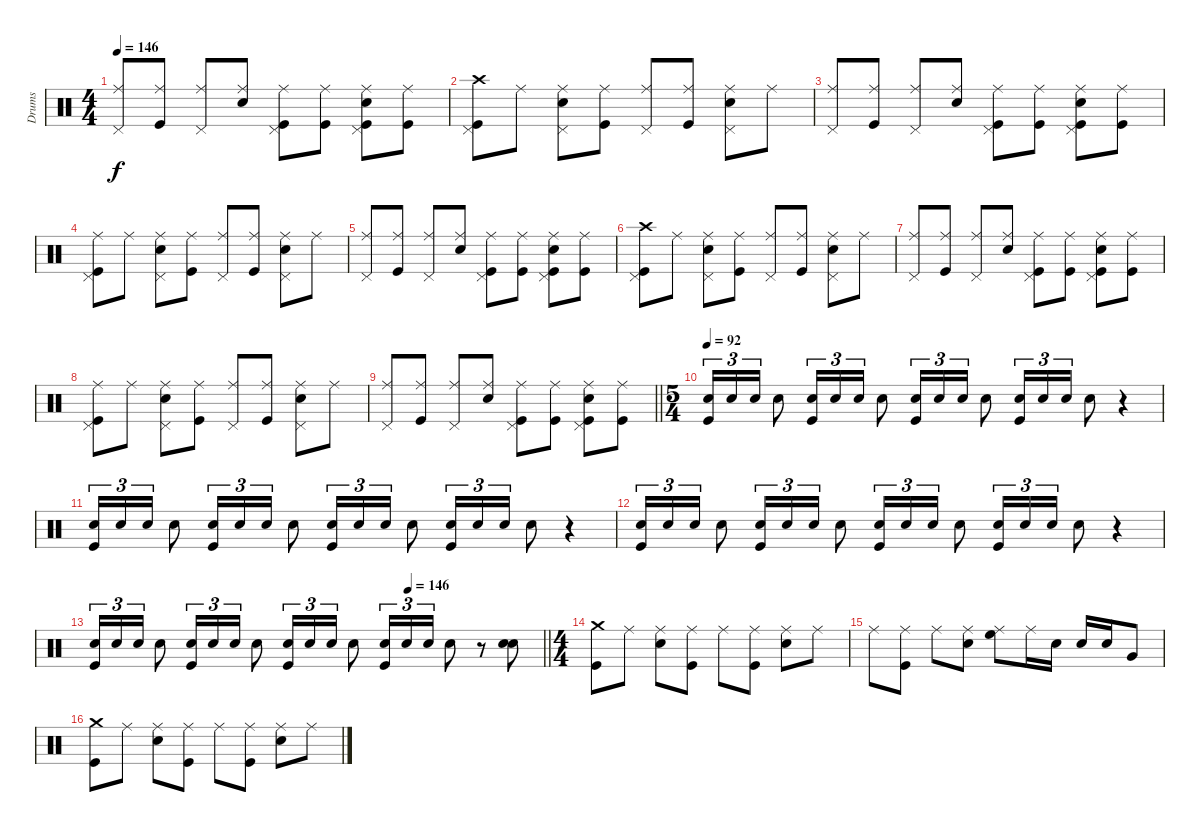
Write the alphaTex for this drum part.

\track ("Drums" "Drums") {instrument percussion}
\staff {score}
\articulation defaults
\ts (4 4)
\tempo 146
\clef neutral
\ks c
("Ride (middle)" "Pedal Hi-Hat (hit)").8{dy f} ("Ride (middle)" "Kick (hit)").8 ("Ride (middle)" "Pedal Hi-Hat (hit)").8 ("Ride (middle)" "Electric Snare (hit)").8 ("Ride (middle)" "Pedal Hi-Hat (hit)" "Kick (hit)").8 ("Ride (middle)" "Kick (hit)").8 ("Ride (middle)" "Pedal Hi-Hat (hit)" "Electric Snare (hit)" "Kick (hit)").8 ("Ride (middle)" "Kick (hit)").8 |
("Crash high (hit)" "Pedal Hi-Hat (hit)" "Kick (hit)").8 "Ride (middle)".8 ("Ride (middle)" "Pedal Hi-Hat (hit)" "Electric Snare (hit)").8 ("Ride (middle)" "Kick (hit)").8 ("Ride (middle)" "Pedal Hi-Hat (hit)").8 ("Ride (middle)" "Kick (hit)").8 ("Ride (middle)" "Pedal Hi-Hat (hit)" "Electric Snare (hit)").8 "Ride (middle)".8 |
("Ride (middle)" "Pedal Hi-Hat (hit)").8 ("Ride (middle)" "Kick (hit)").8 ("Ride (middle)" "Pedal Hi-Hat (hit)").8 ("Ride (middle)" "Electric Snare (hit)").8 ("Ride (middle)" "Pedal Hi-Hat (hit)" "Kick (hit)").8 ("Ride (middle)" "Kick (hit)").8 ("Ride (middle)" "Pedal Hi-Hat (hit)" "Electric Snare (hit)" "Kick (hit)").8 ("Ride (middle)" "Kick (hit)").8 |
("Ride (middle)" "Pedal Hi-Hat (hit)" "Kick (hit)").8 "Ride (middle)".8 ("Ride (middle)" "Pedal Hi-Hat (hit)" "Electric Snare (hit)").8 ("Ride (middle)" "Kick (hit)").8 ("Ride (middle)" "Pedal Hi-Hat (hit)").8 ("Ride (middle)" "Kick (hit)").8 ("Ride (middle)" "Pedal Hi-Hat (hit)" "Electric Snare (hit)").8 "Ride (middle)".8 |
("Ride (middle)" "Pedal Hi-Hat (hit)").8 ("Ride (middle)" "Kick (hit)").8 ("Ride (middle)" "Pedal Hi-Hat (hit)").8 ("Ride (middle)" "Electric Snare (hit)").8 ("Ride (middle)" "Pedal Hi-Hat (hit)" "Kick (hit)").8 ("Ride (middle)" "Kick (hit)").8 ("Ride (middle)" "Pedal Hi-Hat (hit)" "Electric Snare (hit)" "Kick (hit)").8 ("Ride (middle)" "Kick (hit)").8 |
("Crash high (hit)" "Pedal Hi-Hat (hit)" "Kick (hit)").8 "Ride (middle)".8 ("Ride (middle)" "Pedal Hi-Hat (hit)" "Electric Snare (hit)").8 ("Ride (middle)" "Kick (hit)").8 ("Ride (middle)" "Pedal Hi-Hat (hit)").8 ("Ride (middle)" "Kick (hit)").8 ("Ride (middle)" "Pedal Hi-Hat (hit)" "Electric Snare (hit)").8 "Ride (middle)".8 |
("Ride (middle)" "Pedal Hi-Hat (hit)").8 ("Ride (middle)" "Kick (hit)").8 ("Ride (middle)" "Pedal Hi-Hat (hit)").8 ("Ride (middle)" "Electric Snare (hit)").8 ("Ride (middle)" "Pedal Hi-Hat (hit)" "Kick (hit)").8 ("Ride (middle)" "Kick (hit)").8 ("Ride (middle)" "Pedal Hi-Hat (hit)" "Electric Snare (hit)" "Kick (hit)").8 ("Ride (middle)" "Kick (hit)").8 |
("Ride (middle)" "Pedal Hi-Hat (hit)" "Kick (hit)").8 "Ride (middle)".8 ("Ride (middle)" "Pedal Hi-Hat (hit)" "Electric Snare (hit)").8 ("Ride (middle)" "Kick (hit)").8 ("Ride (middle)" "Pedal Hi-Hat (hit)").8 ("Ride (middle)" "Kick (hit)").8 ("Ride (middle)" "Pedal Hi-Hat (hit)" "Electric Snare (hit)").8 "Ride (middle)".8 |
\barLineRight lightlight
("Ride (middle)" "Pedal Hi-Hat (hit)").8 ("Ride (middle)" "Kick (hit)").8 ("Ride (middle)" "Pedal Hi-Hat (hit)").8 ("Ride (middle)" "Electric Snare (hit)").8 ("Ride (middle)" "Pedal Hi-Hat (hit)" "Kick (hit)").8 ("Ride (middle)" "Kick (hit)").8 ("Ride (middle)" "Pedal Hi-Hat (hit)" "Electric Snare (hit)" "Kick (hit)").8 ("Ride (middle)" "Kick (hit)").8 |
\ts (5 4)
\tempo 92
("Electric Snare (hit)" "Kick (hit)").16{tu (3 2)} "Electric Snare (hit)".16{tu (3 2)} "Electric Snare (hit)".16{tu (3 2)} "Electric Snare (hit)".8 ("Electric Snare (hit)" "Kick (hit)").16{tu (3 2)} "Electric Snare (hit)".16{tu (3 2)} "Electric Snare (hit)".16{tu (3 2)} "Electric Snare (hit)".8 ("Electric Snare (hit)" "Kick (hit)").16{tu (3 2)} "Electric Snare (hit)".16{tu (3 2)} "Electric Snare (hit)".16{tu (3 2)} "Electric Snare (hit)".8 ("Electric Snare (hit)" "Kick (hit)").16{tu (3 2)} "Electric Snare (hit)".16{tu (3 2)} "Electric Snare (hit)".16{tu (3 2)} "Electric Snare (hit)".8 r.4 |
("Electric Snare (hit)" "Kick (hit)").16{tu (3 2)} "Electric Snare (hit)".16{tu (3 2)} "Electric Snare (hit)".16{tu (3 2)} "Electric Snare (hit)".8 ("Electric Snare (hit)" "Kick (hit)").16{tu (3 2)} "Electric Snare (hit)".16{tu (3 2)} "Electric Snare (hit)".16{tu (3 2)} "Electric Snare (hit)".8 ("Electric Snare (hit)" "Kick (hit)").16{tu (3 2)} "Electric Snare (hit)".16{tu (3 2)} "Electric Snare (hit)".16{tu (3 2)} "Electric Snare (hit)".8 ("Electric Snare (hit)" "Kick (hit)").16{tu (3 2)} "Electric Snare (hit)".16{tu (3 2)} "Electric Snare (hit)".16{tu (3 2)} "Electric Snare (hit)".8 r.4 |
("Electric Snare (hit)" "Kick (hit)").16{tu (3 2)} "Electric Snare (hit)".16{tu (3 2)} "Electric Snare (hit)".16{tu (3 2)} "Electric Snare (hit)".8 ("Electric Snare (hit)" "Kick (hit)").16{tu (3 2)} "Electric Snare (hit)".16{tu (3 2)} "Electric Snare (hit)".16{tu (3 2)} "Electric Snare (hit)".8 ("Electric Snare (hit)" "Kick (hit)").16{tu (3 2)} "Electric Snare (hit)".16{tu (3 2)} "Electric Snare (hit)".16{tu (3 2)} "Electric Snare (hit)".8 ("Electric Snare (hit)" "Kick (hit)").16{tu (3 2)} "Electric Snare (hit)".16{tu (3 2)} "Electric Snare (hit)".16{tu (3 2)} "Electric Snare (hit)".8 r.4 |
\tempo (146 0.7)
\barLineRight lightlight
("Electric Snare (hit)" "Kick (hit)").16{tu (3 2)} "Electric Snare (hit)".16{tu (3 2)} "Electric Snare (hit)".16{tu (3 2)} "Electric Snare (hit)".8 ("Electric Snare (hit)" "Kick (hit)").16{tu (3 2)} "Electric Snare (hit)".16{tu (3 2)} "Electric Snare (hit)".16{tu (3 2)} "Electric Snare (hit)".8 ("Electric Snare (hit)" "Kick (hit)").16{tu (3 2)} "Electric Snare (hit)".16{tu (3 2)} "Electric Snare (hit)".16{tu (3 2)} "Electric Snare (hit)".8 ("Electric Snare (hit)" "Kick (hit)").16{tu (3 2)} "Electric Snare (hit)".16{tu (3 2)} "Electric Snare (hit)".16{tu (3 2)} "Electric Snare (hit)".8 r.8 ("Electric Snare (hit)" "Electric Snare (hit)").8 |
\ts (4 4)
("Crash medium (hit)" "Kick (hit)").8 "Ride (middle)".8 ("Ride (middle)" "Electric Snare (hit)").8 ("Ride (middle)" "Kick (hit)").8 "Ride (middle)".8 ("Ride (middle)" "Kick (hit)").8 ("Ride (middle)" "Electric Snare (hit)").8 "Ride (middle)".8 |
"Ride (middle)".8 ("Ride (middle)" "Kick (hit)").8 "Ride (middle)".8 ("Ride (middle)" "Electric Snare (hit)").8 ("Ride (middle)" "High Floor Tom (hit)").8 "Ride (middle)".16 "Electric Snare (hit)".16 "Electric Snare (hit)".16 "Electric Snare (hit)".16 "Very Low Tom (hit)".8 |
("Crash medium (hit)" "Kick (hit)").8 "Ride (middle)".8 ("Ride (middle)" "Electric Snare (hit)").8 ("Ride (middle)" "Kick (hit)").8 "Ride (middle)".8 ("Ride (middle)" "Kick (hit)").8 ("Ride (middle)" "Electric Snare (hit)").8 "Ride (middle)".8
